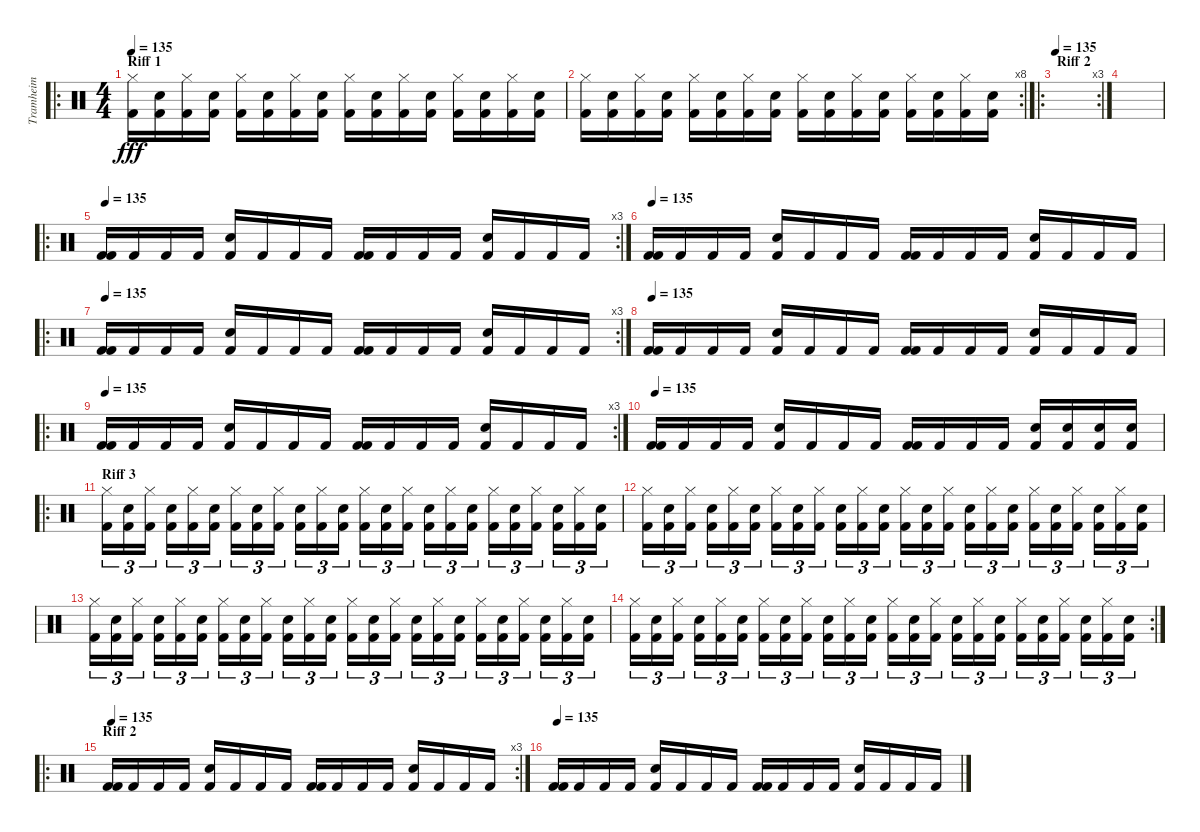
\track ("Tramheim" "Tramheim") {instrument percussion}
\staff {score}
\articulation defaults
\ro
\ts (4 4)
\section ("" "Riff 1")
\tempo 135
\tempo 160
\tempo 135
\clef neutral
\ks c
("Hi-Hat (closed)" "Kick (hit) 2").16{dy fff} ("Snare (hit) 2" "Kick (hit) 2").16 ("Hi-Hat (closed)" "Kick (hit) 2").16 ("Snare (hit) 2" "Kick (hit) 2").16 ("Hi-Hat (closed)" "Kick (hit) 2").16 ("Snare (hit) 2" "Kick (hit) 2").16 ("Hi-Hat (closed)" "Kick (hit) 2").16 ("Snare (hit) 2" "Kick (hit) 2").16 ("Hi-Hat (closed)" "Kick (hit) 2").16 ("Snare (hit) 2" "Kick (hit) 2").16 ("Hi-Hat (closed)" "Kick (hit) 2").16 ("Snare (hit) 2" "Kick (hit) 2").16 ("Hi-Hat (closed)" "Kick (hit) 2").16 ("Snare (hit) 2" "Kick (hit) 2").16 ("Hi-Hat (closed)" "Kick (hit) 2").16 ("Snare (hit) 2" "Kick (hit) 2").16 |
\rc 8
("Hi-Hat (closed)" "Kick (hit) 2").16 ("Snare (hit) 2" "Kick (hit) 2").16 ("Hi-Hat (closed)" "Kick (hit) 2").16 ("Snare (hit) 2" "Kick (hit) 2").16 ("Hi-Hat (closed)" "Kick (hit) 2").16 ("Snare (hit) 2" "Kick (hit) 2").16 ("Hi-Hat (closed)" "Kick (hit) 2").16 ("Snare (hit) 2" "Kick (hit) 2").16 ("Hi-Hat (closed)" "Kick (hit) 2").16 ("Snare (hit) 2" "Kick (hit) 2").16 ("Hi-Hat (closed)" "Kick (hit) 2").16 ("Snare (hit) 2" "Kick (hit) 2").16 ("Hi-Hat (closed)" "Kick (hit) 2").16 ("Snare (hit) 2" "Kick (hit) 2").16 ("Hi-Hat (closed)" "Kick (hit) 2").16 ("Snare (hit) 2" "Kick (hit) 2").16 |
\ro
\rc 3
\section ("" "Riff 2")
\tempo 135
|
|
\ro
\rc 3
\tempo 135
("Kick (hit) 2" "Kick (hit) 2").16 "Kick (hit) 2".16 "Kick (hit) 2".16 "Kick (hit) 2".16 ("Electric Snare (hit)" "Kick (hit) 2").16 "Kick (hit) 2".16 "Kick (hit) 2".16 "Kick (hit) 2".16 ("Kick (hit) 2" "Kick (hit) 2").16 "Kick (hit) 2".16 "Kick (hit) 2".16 "Kick (hit) 2".16 ("Electric Snare (hit)" "Kick (hit) 2").16 "Kick (hit) 2".16 "Kick (hit) 2".16 "Kick (hit) 2".16 |
\tempo 135
("Kick (hit) 2" "Kick (hit) 2").16 "Kick (hit) 2".16 "Kick (hit) 2".16 "Kick (hit) 2".16 ("Electric Snare (hit)" "Kick (hit) 2").16 "Kick (hit) 2".16 "Kick (hit) 2".16 "Kick (hit) 2".16 ("Kick (hit) 2" "Kick (hit) 2").16 "Kick (hit) 2".16 "Kick (hit) 2".16 "Kick (hit) 2".16 ("Electric Snare (hit)" "Kick (hit) 2").16 "Kick (hit) 2".16 "Kick (hit) 2".16 "Kick (hit) 2".16 |
\ro
\rc 3
\tempo 135
("Kick (hit) 2" "Kick (hit) 2").16 "Kick (hit) 2".16 "Kick (hit) 2".16 "Kick (hit) 2".16 ("Electric Snare (hit)" "Kick (hit) 2").16 "Kick (hit) 2".16 "Kick (hit) 2".16 "Kick (hit) 2".16 ("Kick (hit) 2" "Kick (hit) 2").16 "Kick (hit) 2".16 "Kick (hit) 2".16 "Kick (hit) 2".16 ("Electric Snare (hit)" "Kick (hit) 2").16 "Kick (hit) 2".16 "Kick (hit) 2".16 "Kick (hit) 2".16 |
\tempo 135
("Kick (hit) 2" "Kick (hit) 2").16 "Kick (hit) 2".16 "Kick (hit) 2".16 "Kick (hit) 2".16 ("Electric Snare (hit)" "Kick (hit) 2").16 "Kick (hit) 2".16 "Kick (hit) 2".16 "Kick (hit) 2".16 ("Kick (hit) 2" "Kick (hit) 2").16 "Kick (hit) 2".16 "Kick (hit) 2".16 "Kick (hit) 2".16 ("Electric Snare (hit)" "Kick (hit) 2").16 "Kick (hit) 2".16 "Kick (hit) 2".16 "Kick (hit) 2".16 |
\ro
\rc 3
\tempo 135
("Kick (hit) 2" "Kick (hit) 2").16 "Kick (hit) 2".16 "Kick (hit) 2".16 "Kick (hit) 2".16 ("Electric Snare (hit)" "Kick (hit) 2").16 "Kick (hit) 2".16 "Kick (hit) 2".16 "Kick (hit) 2".16 ("Kick (hit) 2" "Kick (hit) 2").16 "Kick (hit) 2".16 "Kick (hit) 2".16 "Kick (hit) 2".16 ("Electric Snare (hit)" "Kick (hit) 2").16 "Kick (hit) 2".16 "Kick (hit) 2".16 "Kick (hit) 2".16 |
\tempo 135
("Kick (hit) 2" "Kick (hit) 2").16 "Kick (hit) 2".16 "Kick (hit) 2".16 "Kick (hit) 2".16 ("Electric Snare (hit)" "Kick (hit) 2").16 "Kick (hit) 2".16 "Kick (hit) 2".16 "Kick (hit) 2".16 ("Kick (hit) 2" "Kick (hit) 2").16 "Kick (hit) 2".16 "Kick (hit) 2".16 "Kick (hit) 2".16 ("Electric Snare (hit)" "Kick (hit) 2").16 ("Electric Snare (hit)" "Kick (hit) 2").16 ("Electric Snare (hit)" "Kick (hit) 2").16 ("Electric Snare (hit)" "Kick (hit) 2").16 |
\ro
\section ("" "Riff 3")
("Hi-Hat (closed)" "Kick (hit) 2").16{tu (3 2)} ("Snare (hit) 2" "Kick (hit) 2").16{tu (3 2)} ("Hi-Hat (closed)" "Kick (hit) 2").16{tu (3 2)} ("Snare (hit) 2" "Kick (hit) 2").16{tu (3 2)} ("Hi-Hat (closed)" "Kick (hit) 2").16{tu (3 2)} ("Snare (hit) 2" "Kick (hit) 2").16{tu (3 2)} ("Hi-Hat (closed)" "Kick (hit) 2").16{tu (3 2)} ("Snare (hit) 2" "Kick (hit) 2").16{tu (3 2)} ("Hi-Hat (closed)" "Kick (hit) 2").16{tu (3 2)} ("Snare (hit) 2" "Kick (hit) 2").16{tu (3 2)} ("Hi-Hat (closed)" "Kick (hit) 2").16{tu (3 2)} ("Snare (hit) 2" "Kick (hit) 2").16{tu (3 2)} ("Hi-Hat (closed)" "Kick (hit) 2").16{tu (3 2)} ("Snare (hit) 2" "Kick (hit) 2").16{tu (3 2)} ("Hi-Hat (closed)" "Kick (hit) 2").16{tu (3 2)} ("Snare (hit) 2" "Kick (hit) 2").16{tu (3 2)} ("Hi-Hat (closed)" "Kick (hit) 2").16{tu (3 2)} ("Snare (hit) 2" "Kick (hit) 2").16{tu (3 2)} ("Hi-Hat (closed)" "Kick (hit) 2").16{tu (3 2)} ("Snare (hit) 2" "Kick (hit) 2").16{tu (3 2)} ("Hi-Hat (closed)" "Kick (hit) 2").16{tu (3 2)} ("Snare (hit) 2" "Kick (hit) 2").16{tu (3 2)} ("Hi-Hat (closed)" "Kick (hit) 2").16{tu (3 2)} ("Snare (hit) 2" "Kick (hit) 2").16{tu (3 2)} |
("Hi-Hat (closed)" "Kick (hit) 2").16{tu (3 2)} ("Snare (hit) 2" "Kick (hit) 2").16{tu (3 2)} ("Hi-Hat (closed)" "Kick (hit) 2").16{tu (3 2)} ("Snare (hit) 2" "Kick (hit) 2").16{tu (3 2)} ("Hi-Hat (closed)" "Kick (hit) 2").16{tu (3 2)} ("Snare (hit) 2" "Kick (hit) 2").16{tu (3 2)} ("Hi-Hat (closed)" "Kick (hit) 2").16{tu (3 2)} ("Snare (hit) 2" "Kick (hit) 2").16{tu (3 2)} ("Hi-Hat (closed)" "Kick (hit) 2").16{tu (3 2)} ("Snare (hit) 2" "Kick (hit) 2").16{tu (3 2)} ("Hi-Hat (closed)" "Kick (hit) 2").16{tu (3 2)} ("Snare (hit) 2" "Kick (hit) 2").16{tu (3 2)} ("Hi-Hat (closed)" "Kick (hit) 2").16{tu (3 2)} ("Snare (hit) 2" "Kick (hit) 2").16{tu (3 2)} ("Hi-Hat (closed)" "Kick (hit) 2").16{tu (3 2)} ("Snare (hit) 2" "Kick (hit) 2").16{tu (3 2)} ("Hi-Hat (closed)" "Kick (hit) 2").16{tu (3 2)} ("Snare (hit) 2" "Kick (hit) 2").16{tu (3 2)} ("Hi-Hat (closed)" "Kick (hit) 2").16{tu (3 2)} ("Snare (hit) 2" "Kick (hit) 2").16{tu (3 2)} ("Hi-Hat (closed)" "Kick (hit) 2").16{tu (3 2)} ("Snare (hit) 2" "Kick (hit) 2").16{tu (3 2)} ("Hi-Hat (closed)" "Kick (hit) 2").16{tu (3 2)} ("Snare (hit) 2" "Kick (hit) 2").16{tu (3 2)} |
("Hi-Hat (closed)" "Kick (hit) 2").16{tu (3 2)} ("Snare (hit) 2" "Kick (hit) 2").16{tu (3 2)} ("Hi-Hat (closed)" "Kick (hit) 2").16{tu (3 2)} ("Snare (hit) 2" "Kick (hit) 2").16{tu (3 2)} ("Hi-Hat (closed)" "Kick (hit) 2").16{tu (3 2)} ("Snare (hit) 2" "Kick (hit) 2").16{tu (3 2)} ("Hi-Hat (closed)" "Kick (hit) 2").16{tu (3 2)} ("Snare (hit) 2" "Kick (hit) 2").16{tu (3 2)} ("Hi-Hat (closed)" "Kick (hit) 2").16{tu (3 2)} ("Snare (hit) 2" "Kick (hit) 2").16{tu (3 2)} ("Hi-Hat (closed)" "Kick (hit) 2").16{tu (3 2)} ("Snare (hit) 2" "Kick (hit) 2").16{tu (3 2)} ("Hi-Hat (closed)" "Kick (hit) 2").16{tu (3 2)} ("Snare (hit) 2" "Kick (hit) 2").16{tu (3 2)} ("Hi-Hat (closed)" "Kick (hit) 2").16{tu (3 2)} ("Snare (hit) 2" "Kick (hit) 2").16{tu (3 2)} ("Hi-Hat (closed)" "Kick (hit) 2").16{tu (3 2)} ("Snare (hit) 2" "Kick (hit) 2").16{tu (3 2)} ("Hi-Hat (closed)" "Kick (hit) 2").16{tu (3 2)} ("Snare (hit) 2" "Kick (hit) 2").16{tu (3 2)} ("Hi-Hat (closed)" "Kick (hit) 2").16{tu (3 2)} ("Snare (hit) 2" "Kick (hit) 2").16{tu (3 2)} ("Hi-Hat (closed)" "Kick (hit) 2").16{tu (3 2)} ("Snare (hit) 2" "Kick (hit) 2").16{tu (3 2)} |
\rc 2
("Hi-Hat (closed)" "Kick (hit) 2").16{tu (3 2)} ("Snare (hit) 2" "Kick (hit) 2").16{tu (3 2)} ("Hi-Hat (closed)" "Kick (hit) 2").16{tu (3 2)} ("Snare (hit) 2" "Kick (hit) 2").16{tu (3 2)} ("Hi-Hat (closed)" "Kick (hit) 2").16{tu (3 2)} ("Snare (hit) 2" "Kick (hit) 2").16{tu (3 2)} ("Hi-Hat (closed)" "Kick (hit) 2").16{tu (3 2)} ("Snare (hit) 2" "Kick (hit) 2").16{tu (3 2)} ("Hi-Hat (closed)" "Kick (hit) 2").16{tu (3 2)} ("Snare (hit) 2" "Kick (hit) 2").16{tu (3 2)} ("Hi-Hat (closed)" "Kick (hit) 2").16{tu (3 2)} ("Snare (hit) 2" "Kick (hit) 2").16{tu (3 2)} ("Hi-Hat (closed)" "Kick (hit) 2").16{tu (3 2)} ("Snare (hit) 2" "Kick (hit) 2").16{tu (3 2)} ("Hi-Hat (closed)" "Kick (hit) 2").16{tu (3 2)} ("Snare (hit) 2" "Kick (hit) 2").16{tu (3 2)} ("Hi-Hat (closed)" "Kick (hit) 2").16{tu (3 2)} ("Snare (hit) 2" "Kick (hit) 2").16{tu (3 2)} ("Hi-Hat (closed)" "Kick (hit) 2").16{tu (3 2)} ("Snare (hit) 2" "Kick (hit) 2").16{tu (3 2)} ("Hi-Hat (closed)" "Kick (hit) 2").16{tu (3 2)} ("Snare (hit) 2" "Kick (hit) 2").16{tu (3 2)} ("Hi-Hat (closed)" "Kick (hit) 2").16{tu (3 2)} ("Snare (hit) 2" "Kick (hit) 2").16{tu (3 2)} |
\ro
\rc 3
\section ("" "Riff 2")
\tempo 135
("Kick (hit) 2" "Kick (hit) 2").16 "Kick (hit) 2".16 "Kick (hit) 2".16 "Kick (hit) 2".16 ("Electric Snare (hit)" "Kick (hit) 2").16 "Kick (hit) 2".16 "Kick (hit) 2".16 "Kick (hit) 2".16 ("Kick (hit) 2" "Kick (hit) 2").16 "Kick (hit) 2".16 "Kick (hit) 2".16 "Kick (hit) 2".16 ("Electric Snare (hit)" "Kick (hit) 2").16 "Kick (hit) 2".16 "Kick (hit) 2".16 "Kick (hit) 2".16 |
\tempo 135
("Kick (hit) 2" "Kick (hit) 2").16 "Kick (hit) 2".16 "Kick (hit) 2".16 "Kick (hit) 2".16 ("Electric Snare (hit)" "Kick (hit) 2").16 "Kick (hit) 2".16 "Kick (hit) 2".16 "Kick (hit) 2".16 ("Kick (hit) 2" "Kick (hit) 2").16 "Kick (hit) 2".16 "Kick (hit) 2".16 "Kick (hit) 2".16 ("Electric Snare (hit)" "Kick (hit) 2").16 "Kick (hit) 2".16 "Kick (hit) 2".16 "Kick (hit) 2".16
